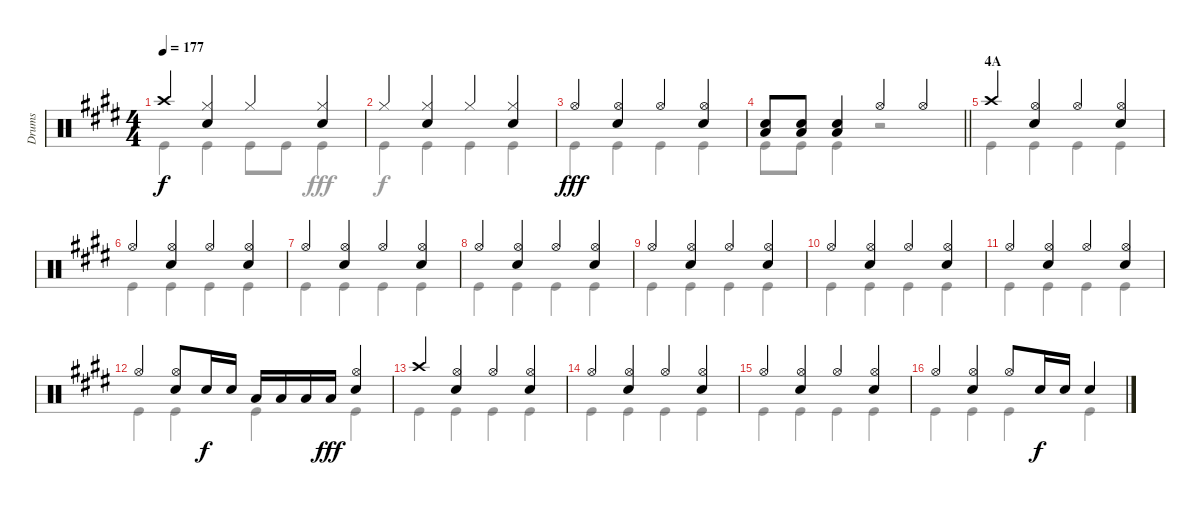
\track ("Drums" "Drums") {instrument percussion}
\staff {score}
\articulation defaults
\voice
\ts (4 4)
\tempo 177
\clef neutral
\ks e "Crash high (hit)".4{dy f}
("Hi-Hat (closed)" "Snare (hit) 2").4 "Hi-Hat (closed)".4 ("Hi-Hat (closed)" "Snare (hit) 2").4 |
"Hi-Hat (closed)".4 ("Hi-Hat (closed)" "Snare (hit) 2").4 "Hi-Hat (closed)".4 ("Hi-Hat (closed)" "Snare (hit) 2").4 |
"Hi-Hat (open)".4{dy fff} ("Hi-Hat (open)" "Snare (hit) 2").4 "Hi-Hat (open)".4 ("Hi-Hat (open)" "Snare (hit) 2").4 |
\barLineRight lightlight
("Low Tom (hit)" "Snare (hit) 2").8 ("Low Tom (hit)" "Snare (hit) 2").8 ("Low Tom (hit)" "Snare (hit) 2").4 "Hi-Hat (open)".4 "Hi-Hat (open)".4 |
\section ("" "4A")
"Crash high (hit)".4 ("Hi-Hat (open)" "Snare (hit) 2").4 "Hi-Hat (open)".4 ("Hi-Hat (open)" "Snare (hit) 2").4 |
"Hi-Hat (open)".4 ("Hi-Hat (open)" "Snare (hit) 2").4 "Hi-Hat (open)".4 ("Hi-Hat (open)" "Snare (hit) 2").4 |
"Hi-Hat (open)".4 ("Hi-Hat (open)" "Snare (hit) 2").4 "Hi-Hat (open)".4 ("Hi-Hat (open)" "Snare (hit) 2").4 |
"Hi-Hat (open)".4 ("Hi-Hat (open)" "Snare (hit) 2").4 "Hi-Hat (open)".4 ("Hi-Hat (open)" "Snare (hit) 2").4 |
"Hi-Hat (open)".4 ("Hi-Hat (open)" "Snare (hit) 2").4 "Hi-Hat (open)".4 ("Hi-Hat (open)" "Snare (hit) 2").4 |
"Hi-Hat (open)".4 ("Hi-Hat (open)" "Snare (hit) 2").4 "Hi-Hat (open)".4 ("Hi-Hat (open)" "Snare (hit) 2").4 |
"Hi-Hat (open)".4 ("Hi-Hat (open)" "Snare (hit) 2").4 "Hi-Hat (open)".4 ("Hi-Hat (open)" "Snare (hit) 2").4 |
"Hi-Hat (open)".4 ("Hi-Hat (open)" "Snare (hit) 2").8 "Snare (hit) 2".16{dy f} "Snare (hit) 2".16 "Low Tom (hit)".16 "Low Tom (hit)".16 "Low Tom (hit)".16 "Low Tom (hit)".16{dy fff} ("Hi-Hat (open)" "Snare (hit) 2").4 |
"Crash high (hit)".4 ("Hi-Hat (open)" "Snare (hit) 2").4 "Hi-Hat (open)".4 ("Hi-Hat (open)" "Snare (hit) 2").4 |
"Hi-Hat (open)".4 ("Hi-Hat (open)" "Snare (hit) 2").4 "Hi-Hat (open)".4 ("Hi-Hat (open)" "Snare (hit) 2").4 |
"Hi-Hat (open)".4 ("Hi-Hat (open)" "Snare (hit) 2").4 "Hi-Hat (open)".4 ("Hi-Hat (open)" "Snare (hit) 2").4 |
"Hi-Hat (open)".4 ("Hi-Hat (open)" "Snare (hit) 2").4 "Hi-Hat (open)".8 "Snare (hit) 2".16{dy f} "Snare (hit) 2".16 "Snare (hit) 2".4
\voice
\clef neutral
\ottava regular
\simile none
\ks e "Kick (hit)".4{dy f} "Kick (hit)".4 "Kick (hit)".8 "Kick (hit)".8 "Kick (hit)".4{dy fff}
|
"Kick (hit)".4{dy f} "Kick (hit)".4 "Kick (hit)".4 "Kick (hit)".4 |
"Kick (hit)".4{dy fff} "Kick (hit)".4 "Kick (hit)".4 "Kick (hit)".4 |
\barLineRight lightlight "Kick (hit)".8 "Kick (hit)".8 "Kick (hit)".4
r.2 |
"Kick (hit)".4 "Kick (hit)".4 "Kick (hit)".4 "Kick (hit)".4 |
"Kick (hit)".4 "Kick (hit)".4 "Kick (hit)".4 "Kick (hit)".4 |
"Kick (hit)".4 "Kick (hit)".4 "Kick (hit)".4 "Kick (hit)".4 |
"Kick (hit)".4 "Kick (hit)".4 "Kick (hit)".4 "Kick (hit)".4 |
"Kick (hit)".4 "Kick (hit)".4 "Kick (hit)".4 "Kick (hit)".4 |
"Kick (hit)".4 "Kick (hit)".4 "Kick (hit)".4 "Kick (hit)".4 |
"Kick (hit)".4 "Kick (hit)".4 "Kick (hit)".4 "Kick (hit)".4 |
"Kick (hit)".4 "Kick (hit)".4 "Kick (hit)".4 "Kick (hit)".4 |
"Kick (hit)".4 "Kick (hit)".4 "Kick (hit)".4 "Kick (hit)".4 |
"Kick (hit)".4 "Kick (hit)".4 "Kick (hit)".4 "Kick (hit)".4 |
"Kick (hit)".4 "Kick (hit)".4 "Kick (hit)".4 "Kick (hit)".4 |
"Kick (hit)".4 "Kick (hit)".4 "Kick (hit)".4 "Kick (hit)".4
